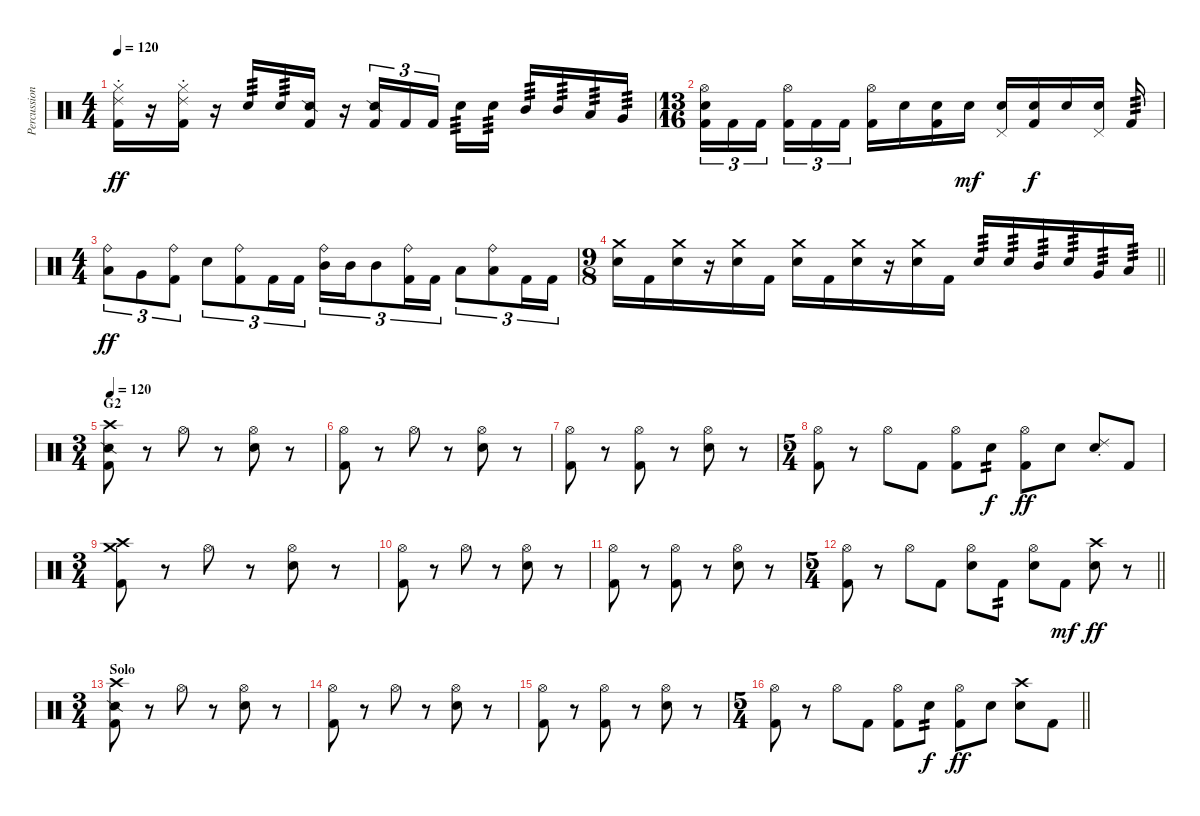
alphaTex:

\track ("Percussion" "Percussion") {instrument percussion}
\staff {score}
\articulation defaults
\ts (4 4)
\tempo 120
\clef neutral
\ks c
("Hi-Hat (closed)" "Ride (choke) 2" "Kick (hit) 2").16{dy ff} r.16 ("Hi-Hat (closed)" "Ride (choke) 2" "Kick (hit) 2").16 r.16 "Snare (hit) 2".16{tp 3} "Snare (hit) 2".16{tp 3} ("Snare (side stick) 2" "Kick (hit) 2").16 r.16 ("Snare (side stick) 2" "Kick (hit) 2").16{tu (3 2)} "Kick (hit) 2".16{tu (3 2)} "Kick (hit) 2".16{tu (3 2) beam splitsecondary} "Snare (hit) 2".16{tp 3} "Snare (hit) 2".16{tp 3} "Mid Tom (hit)".16{tp 3} "Mid Tom (hit)".16{tp 3} "Low Tom (hit)".16{tp 3} "Very Low Tom (hit)".16{tp 3} |
\ts (13 16)
("Hi-Hat (open)" "Snare (hit) 2" "Kick (hit) 2").16{tu (3 2)} "Kick (hit) 2".16{tu (3 2)} "Kick (hit) 2".16{tu (3 2)} ("Hi-Hat (open)" "Kick (hit) 2").16{tu (3 2)} "Kick (hit) 2".16{tu (3 2)} "Kick (hit) 2".16{tu (3 2)} ("Hi-Hat (open)" "Kick (hit) 2").16 "Snare (hit) 2".16 ("Snare (hit)" "Kick (hit) 2").16 "Snare (hit) 2".16{dy mf} ("Pedal Hi-Hat (hit)" "Snare (hit) 2").16 ("Snare (hit)" "Kick (hit) 2").16{dy f} "Snare (hit) 2".16 ("Pedal Hi-Hat (hit)" "Snare (hit) 2").16 "Kick (hit) 2".16{tp 3} |
\ts (4 4)
("Ride (bell)" "Low Tom (hit)").8{tu (3 2) dy ff} "Very Low Tom (hit)".8{tu (3 2)} ("Ride (bell)" "Kick (hit) 2").8{tu (3 2)} "Snare (hit) 2".8{tu (3 2)} ("Ride (bell)" "Kick (hit) 2").8{tu (3 2)} "Kick (hit) 2".16{tu (3 2)} "Kick (hit) 2".16{tu (3 2)} ("Ride (bell)" "Mid Tom (hit)").16{tu (3 2)} "Mid Tom (hit)".16{tu (3 2)} "Mid Tom (hit)".8{tu (3 2)} ("Ride (bell)" "Kick (hit) 2").16{tu (3 2)} "Kick (hit) 2".16{tu (3 2)} "Low Tom (hit)".8{tu (3 2)} ("Ride (bell)" "Low Tom (hit)").8{tu (3 2)} "Kick (hit) 2".16{tu (3 2)} "Kick (hit) 2".16{tu (3 2)} |
\ts (9 8)
\barLineRight lightlight
("Crash medium (hit)" "Snare (hit) 2").16 "Kick (hit) 2".16 ("Crash medium (hit)" "Snare (hit) 2").16 r.16 ("Crash medium (hit)" "Snare (hit) 2").16 "Kick (hit) 2".16 ("Crash medium (hit)" "Snare (hit) 2").16 "Kick (hit) 2".16 ("Crash medium (hit)" "Snare (hit) 2").16 r.16 ("Crash medium (hit)" "Snare (hit) 2").16 "Kick (hit) 2".16 "Snare (hit) 2".16{tp 3} "Snare (hit) 2".16{tp 3} "Mid Tom (hit)".16{tp 3} "Snare (hit) 2".16{tp 3} "Very Low Tom (hit)".16{tp 3} "Low Floor Tom (hit)".16{tp 3} |
\ts (3 4)
\section ("" "G2")
\tempo 120
("Snare (side stick) 2" "Crash high (hit)" "Kick (hit) 2").8 r.8 "Hi-Hat (open)".8 r.8 ("Hi-Hat (open)" "Snare (hit) 2").8 r.8 |
("Hi-Hat (open)" "Kick (hit) 2").8 r.8 "Hi-Hat (open)".8 r.8 ("Hi-Hat (open)" "Snare (hit) 2").8 r.8 |
("Hi-Hat (open)" "Kick (hit) 2").8 r.8 ("Hi-Hat (open)" "Kick (hit) 2").8 r.8 ("Hi-Hat (open)" "Snare (hit) 2").8 r.8 |
\ts (5 4)
("Hi-Hat (open)" "Kick (hit) 2").8 r.8 "Hi-Hat (open)".8 "Kick (hit) 2".8 ("Hi-Hat (open)" "Kick (hit) 2").8 "Snare (hit) 2".8{tp 2 dy f} ("Hi-Hat (open)" "Kick (hit) 2").8{dy ff} "Snare (hit) 2".8 ("Ride (choke) 2" "Snare (hit) 2").8 "Kick (hit) 2".8 |
\ts (3 4)
("Crash medium (hit)" "Crash high (hit)" "Kick (hit) 2").8 r.8 "Hi-Hat (open)".8 r.8 ("Hi-Hat (open)" "Snare (hit) 2").8 r.8 |
("Hi-Hat (open)" "Kick (hit) 2").8 r.8 "Hi-Hat (open)".8 r.8 ("Hi-Hat (open)" "Snare (hit) 2").8 r.8 |
("Hi-Hat (open)" "Kick (hit) 2").8 r.8 ("Hi-Hat (open)" "Kick (hit) 2").8 r.8 ("Hi-Hat (open)" "Snare (hit) 2").8 r.8 |
\ts (5 4)
\barLineRight lightlight
("Hi-Hat (open)" "Kick (hit) 2").8 r.8 "Hi-Hat (open)".8 "Kick (hit) 2".8 ("Hi-Hat (open)" "Snare (hit) 2").8 "Kick (hit) 2".8{tp 2} ("Hi-Hat (open)" "Snare (hit) 2").8 "Kick (hit) 2".8{dy mf} ("Crash high (hit)" "Snare (hit) 2").8{dy ff} r.8 |
\ts (3 4)
\section ("" "Solo")
("Snare (side stick) 2" "Crash high (hit)" "Kick (hit) 2").8 r.8 "Hi-Hat (open)".8 r.8 ("Hi-Hat (open)" "Snare (hit) 2").8 r.8 |
("Hi-Hat (open)" "Kick (hit) 2").8 r.8 "Hi-Hat (open)".8 r.8 ("Hi-Hat (open)" "Snare (hit) 2").8 r.8 |
("Hi-Hat (open)" "Kick (hit) 2").8 r.8 ("Hi-Hat (open)" "Kick (hit) 2").8 r.8 ("Hi-Hat (open)" "Snare (hit) 2").8 r.8 |
\ts (5 4)
\barLineRight lightlight
("Hi-Hat (open)" "Kick (hit) 2").8 r.8 "Hi-Hat (open)".8 "Kick (hit) 2".8 ("Hi-Hat (open)" "Kick (hit) 2").8 "Snare (hit) 2".8{tp 2 dy f} ("Hi-Hat (open)" "Kick (hit) 2").8{dy ff} "Snare (hit) 2".8 ("Crash high (hit)" "Snare (hit) 2").8 "Kick (hit) 2".8
